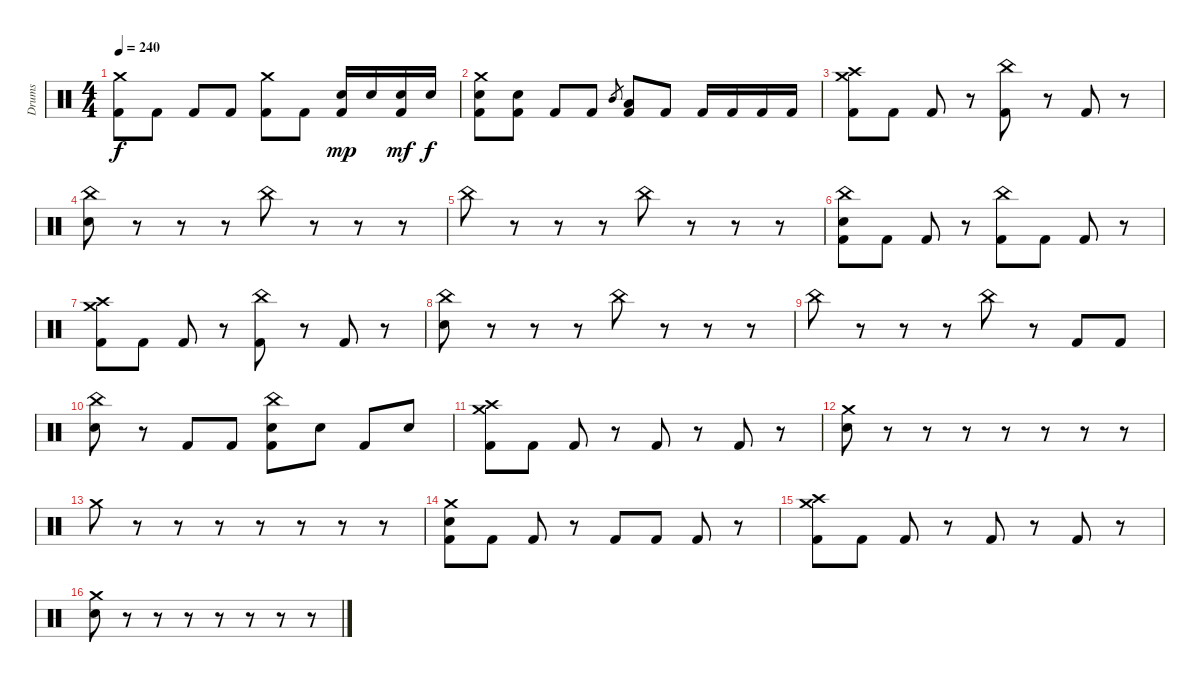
\track ("Drums" "Drums") {instrument percussion}
\staff {score}
\articulation defaults
\ts (4 4)
\tempo 240
\clef neutral
\ks c
("Crash medium (hit)" "Kick (hit) 2").8{dy f} "Kick (hit) 2".8 "Kick (hit) 2".8 "Kick (hit) 2".8 ("Crash medium (hit)" "Kick (hit) 2").8 "Kick (hit) 2".8 ("Electric Snare (hit)" "Kick (hit) 2").16{dy mp} "Electric Snare (hit)".16 ("Electric Snare (hit)" "Kick (hit) 2").16{dy mf} "Electric Snare (hit)".16{dy f} |
("Crash medium (hit)" "Electric Snare (hit)" "Kick (hit) 2").8 ("Electric Snare (hit)" "Kick (hit) 2").8 "Kick (hit) 2".8 "Kick (hit) 2".8 "Mid Tom (hit)".8{gr} ("Low Tom (hit)" "Kick (hit) 2").8 "Kick (hit) 2".8 "Kick (hit) 2".16 "Kick (hit) 2".16 "Kick (hit) 2".16 "Kick (hit) 2".16 |
("Crash medium (hit)" "Crash high (hit)" "Kick (hit) 2").8 "Kick (hit) 2".8 "Kick (hit) 2".8 r.8 ("China (hit)" "Kick (hit) 2").8 r.8 "Kick (hit) 2".8 r.8 |
("China (hit)" "Electric Snare (hit)").8 r.8 r.8 r.8 "China (hit)".8 r.8 r.8 r.8 |
"China (hit)".8 r.8 r.8 r.8 "China (hit)".8 r.8 r.8 r.8 |
("China (hit)" "Electric Snare (hit)" "Kick (hit) 2").8 "Kick (hit) 2".8 "Kick (hit) 2".8 r.8 ("China (hit)" "Kick (hit) 2").8 "Kick (hit) 2".8 "Kick (hit) 2".8 r.8 |
("Crash medium (hit)" "Crash high (hit)" "Kick (hit) 2").8 "Kick (hit) 2".8 "Kick (hit) 2".8 r.8 ("China (hit)" "Kick (hit) 2").8 r.8 "Kick (hit) 2".8 r.8 |
("China (hit)" "Electric Snare (hit)").8 r.8 r.8 r.8 "China (hit)".8 r.8 r.8 r.8 |
"China (hit)".8 r.8 r.8 r.8 "China (hit)".8 r.8 "Kick (hit) 2".8 "Kick (hit) 2".8 |
("China (hit)" "Electric Snare (hit)").8 r.8 "Kick (hit) 2".8 "Kick (hit) 2".8 ("China (hit)" "Electric Snare (hit)" "Kick (hit) 2").8 "Electric Snare (hit)".8 "Kick (hit) 2".8 "Electric Snare (hit)".8 |
("Crash medium (hit)" "Crash high (hit)" "Kick (hit) 2").8 "Kick (hit) 2".8 "Kick (hit) 2".8 r.8 "Kick (hit) 2".8 r.8 "Kick (hit) 2".8 r.8 |
("Crash medium (hit)" "Electric Snare (hit)").8 r.8 r.8 r.8 r.8 r.8 r.8 r.8 |
"Crash medium (hit)".8 r.8 r.8 r.8 r.8 r.8 r.8 r.8 |
("Crash medium (hit)" "Electric Snare (hit)" "Kick (hit) 2").8 "Kick (hit) 2".8 "Kick (hit) 2".8 r.8 "Kick (hit) 2".8 "Kick (hit) 2".8 "Kick (hit) 2".8 r.8 |
("Crash medium (hit)" "Crash high (hit)" "Kick (hit) 2").8 "Kick (hit) 2".8 "Kick (hit) 2".8 r.8 "Kick (hit) 2".8 r.8 "Kick (hit) 2".8 r.8 |
("Crash medium (hit)" "Electric Snare (hit)").8 r.8 r.8 r.8 r.8 r.8 r.8 r.8
